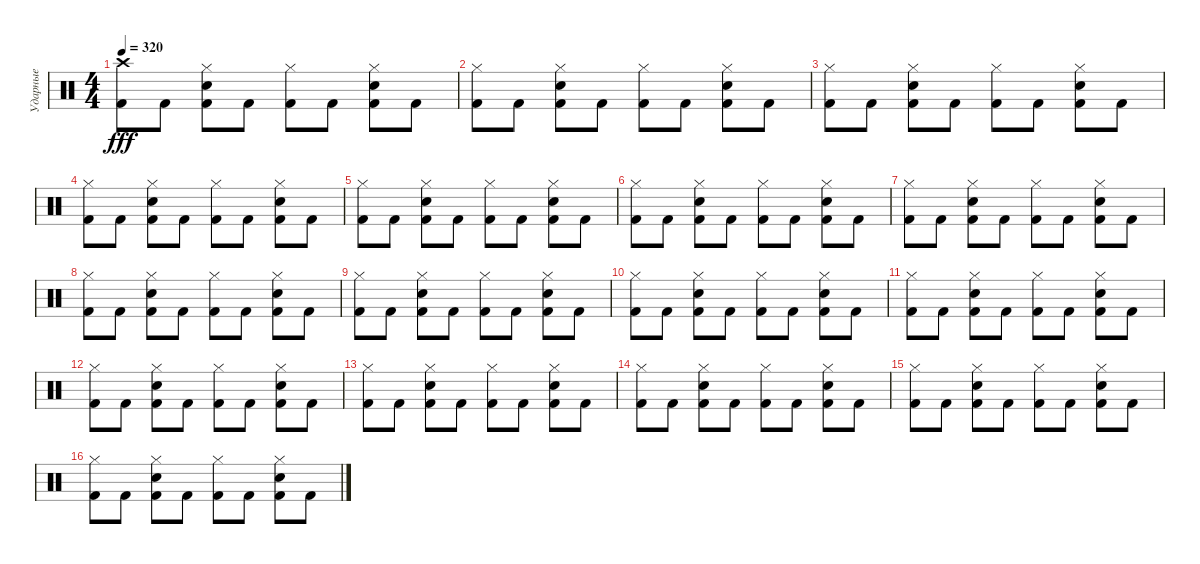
\track ("Ударные" "Ударные") {instrument percussion}
\staff {score}
\articulation defaults
\ts (4 4)
\tempo 320
\clef neutral
\ks c
("Kick (hit) 2" "Crash high (hit)").8{dy fff} "Kick (hit) 2".8 ("Kick (hit) 2" "Snare (hit) 2" "Hi-Hat (closed)").8 "Kick (hit) 2".8 ("Kick (hit) 2" "Hi-Hat (closed)").8 "Kick (hit) 2".8 ("Kick (hit) 2" "Snare (hit) 2" "Hi-Hat (closed)").8 "Kick (hit) 2".8 |
("Kick (hit) 2" "Hi-Hat (closed)").8 "Kick (hit) 2".8 ("Kick (hit) 2" "Snare (hit) 2" "Hi-Hat (closed)").8 "Kick (hit) 2".8 ("Kick (hit) 2" "Hi-Hat (closed)").8 "Kick (hit) 2".8 ("Kick (hit) 2" "Snare (hit) 2" "Hi-Hat (closed)").8 "Kick (hit) 2".8 |
("Kick (hit) 2" "Hi-Hat (closed)").8 "Kick (hit) 2".8 ("Kick (hit) 2" "Snare (hit) 2" "Hi-Hat (closed)").8 "Kick (hit) 2".8 ("Kick (hit) 2" "Hi-Hat (closed)").8 "Kick (hit) 2".8 ("Kick (hit) 2" "Snare (hit) 2" "Hi-Hat (closed)").8 "Kick (hit) 2".8 |
("Kick (hit) 2" "Hi-Hat (closed)").8 "Kick (hit) 2".8 ("Kick (hit) 2" "Snare (hit) 2" "Hi-Hat (closed)").8 "Kick (hit) 2".8 ("Kick (hit) 2" "Hi-Hat (closed)").8 "Kick (hit) 2".8 ("Kick (hit) 2" "Snare (hit) 2" "Hi-Hat (closed)").8 "Kick (hit) 2".8 |
("Kick (hit) 2" "Hi-Hat (closed)").8 "Kick (hit) 2".8 ("Kick (hit) 2" "Snare (hit) 2" "Hi-Hat (closed)").8 "Kick (hit) 2".8 ("Kick (hit) 2" "Hi-Hat (closed)").8 "Kick (hit) 2".8 ("Kick (hit) 2" "Snare (hit) 2" "Hi-Hat (closed)").8 "Kick (hit) 2".8 |
("Kick (hit) 2" "Hi-Hat (closed)").8 "Kick (hit) 2".8 ("Kick (hit) 2" "Snare (hit) 2" "Hi-Hat (closed)").8 "Kick (hit) 2".8 ("Kick (hit) 2" "Hi-Hat (closed)").8 "Kick (hit) 2".8 ("Kick (hit) 2" "Snare (hit) 2" "Hi-Hat (closed)").8 "Kick (hit) 2".8 |
("Kick (hit) 2" "Hi-Hat (closed)").8 "Kick (hit) 2".8 ("Kick (hit) 2" "Snare (hit) 2" "Hi-Hat (closed)").8 "Kick (hit) 2".8 ("Kick (hit) 2" "Hi-Hat (closed)").8 "Kick (hit) 2".8 ("Kick (hit) 2" "Snare (hit) 2" "Hi-Hat (closed)").8 "Kick (hit) 2".8 |
("Kick (hit) 2" "Hi-Hat (closed)").8 "Kick (hit) 2".8 ("Kick (hit) 2" "Snare (hit) 2" "Hi-Hat (closed)").8 "Kick (hit) 2".8 ("Kick (hit) 2" "Hi-Hat (closed)").8 "Kick (hit) 2".8 ("Kick (hit) 2" "Snare (hit) 2" "Hi-Hat (closed)").8 "Kick (hit) 2".8 |
("Kick (hit) 2" "Hi-Hat (closed)").8 "Kick (hit) 2".8 ("Kick (hit) 2" "Snare (hit) 2" "Hi-Hat (closed)").8 "Kick (hit) 2".8 ("Kick (hit) 2" "Hi-Hat (closed)").8 "Kick (hit) 2".8 ("Kick (hit) 2" "Snare (hit) 2" "Hi-Hat (closed)").8 "Kick (hit) 2".8 |
("Kick (hit) 2" "Hi-Hat (closed)").8 "Kick (hit) 2".8 ("Kick (hit) 2" "Snare (hit) 2" "Hi-Hat (closed)").8 "Kick (hit) 2".8 ("Kick (hit) 2" "Hi-Hat (closed)").8 "Kick (hit) 2".8 ("Kick (hit) 2" "Snare (hit) 2" "Hi-Hat (closed)").8 "Kick (hit) 2".8 |
("Kick (hit) 2" "Hi-Hat (closed)").8 "Kick (hit) 2".8 ("Kick (hit) 2" "Snare (hit) 2" "Hi-Hat (closed)").8 "Kick (hit) 2".8 ("Kick (hit) 2" "Hi-Hat (closed)").8 "Kick (hit) 2".8 ("Kick (hit) 2" "Snare (hit) 2" "Hi-Hat (closed)").8 "Kick (hit) 2".8 |
("Kick (hit) 2" "Hi-Hat (closed)").8 "Kick (hit) 2".8 ("Kick (hit) 2" "Snare (hit) 2" "Hi-Hat (closed)").8 "Kick (hit) 2".8 ("Kick (hit) 2" "Hi-Hat (closed)").8 "Kick (hit) 2".8 ("Kick (hit) 2" "Snare (hit) 2" "Hi-Hat (closed)").8 "Kick (hit) 2".8 |
("Kick (hit) 2" "Hi-Hat (closed)").8 "Kick (hit) 2".8 ("Kick (hit) 2" "Snare (hit) 2" "Hi-Hat (closed)").8 "Kick (hit) 2".8 ("Kick (hit) 2" "Hi-Hat (closed)").8 "Kick (hit) 2".8 ("Kick (hit) 2" "Snare (hit) 2" "Hi-Hat (closed)").8 "Kick (hit) 2".8 |
("Kick (hit) 2" "Hi-Hat (closed)").8 "Kick (hit) 2".8 ("Kick (hit) 2" "Snare (hit) 2" "Hi-Hat (closed)").8 "Kick (hit) 2".8 ("Kick (hit) 2" "Hi-Hat (closed)").8 "Kick (hit) 2".8 ("Kick (hit) 2" "Snare (hit) 2" "Hi-Hat (closed)").8 "Kick (hit) 2".8 |
("Kick (hit) 2" "Hi-Hat (closed)").8 "Kick (hit) 2".8 ("Kick (hit) 2" "Snare (hit) 2" "Hi-Hat (closed)").8 "Kick (hit) 2".8 ("Kick (hit) 2" "Hi-Hat (closed)").8 "Kick (hit) 2".8 ("Kick (hit) 2" "Snare (hit) 2" "Hi-Hat (closed)").8 "Kick (hit) 2".8 |
("Kick (hit) 2" "Hi-Hat (closed)").8 "Kick (hit) 2".8 ("Kick (hit) 2" "Snare (hit) 2" "Hi-Hat (closed)").8 "Kick (hit) 2".8 ("Kick (hit) 2" "Hi-Hat (closed)").8 "Kick (hit) 2".8 ("Kick (hit) 2" "Snare (hit) 2" "Hi-Hat (closed)").8 "Kick (hit) 2".8
